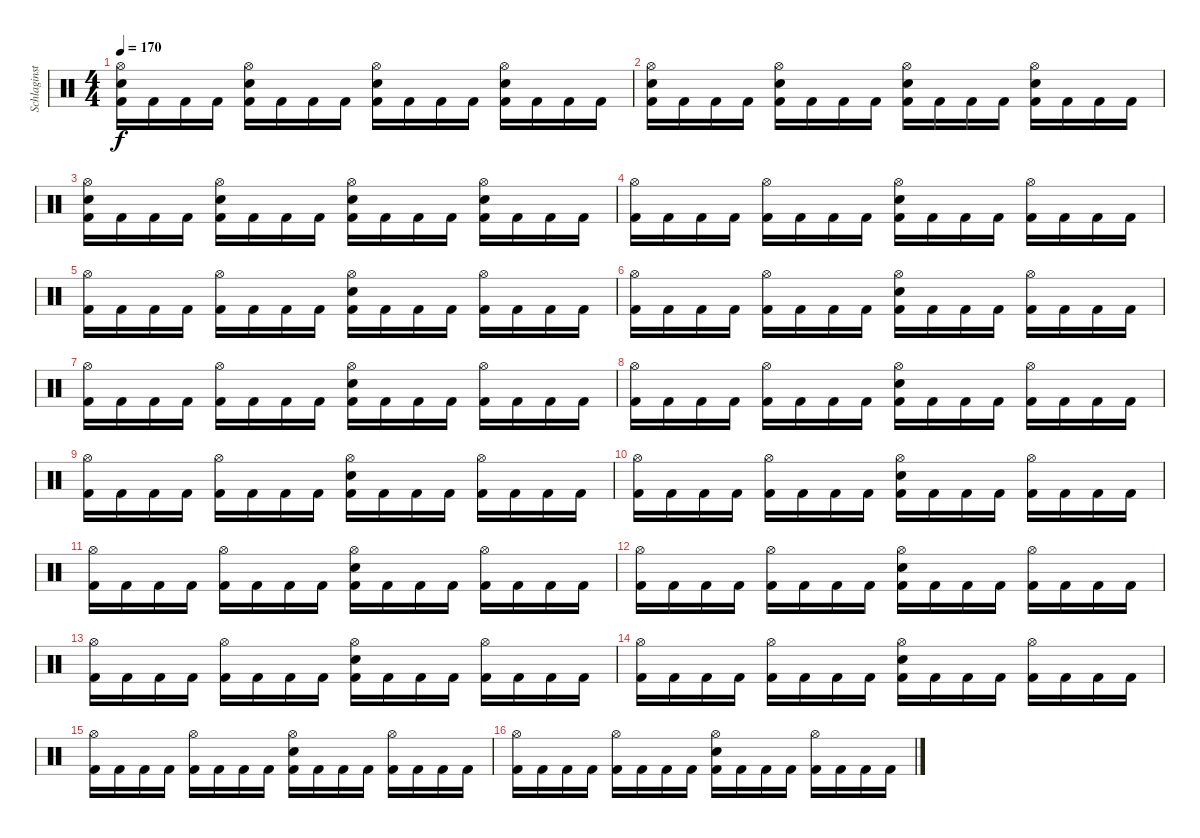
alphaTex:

\track ("Schlaginstrumente - Auswahl" "Schlaginst") {instrument percussion}
\staff {score}
\articulation defaults
\ts (4 4)
\tempo 170
\clef neutral
\ks c
("Hi-Hat (open)" "Snare (hit) 2" "Kick (hit) 2").16{dy f} "Kick (hit) 2".16 "Kick (hit) 2".16 "Kick (hit) 2".16 ("Hi-Hat (open)" "Snare (hit) 2" "Kick (hit) 2").16 "Kick (hit) 2".16 "Kick (hit) 2".16 "Kick (hit) 2".16 ("Hi-Hat (open)" "Snare (hit) 2" "Kick (hit) 2").16 "Kick (hit) 2".16 "Kick (hit) 2".16 "Kick (hit) 2".16 ("Hi-Hat (open)" "Snare (hit) 2" "Kick (hit) 2").16 "Kick (hit) 2".16 "Kick (hit) 2".16 "Kick (hit) 2".16 |
("Hi-Hat (open)" "Snare (hit) 2" "Kick (hit) 2").16 "Kick (hit) 2".16 "Kick (hit) 2".16 "Kick (hit) 2".16 ("Hi-Hat (open)" "Snare (hit) 2" "Kick (hit) 2").16 "Kick (hit) 2".16 "Kick (hit) 2".16 "Kick (hit) 2".16 ("Hi-Hat (open)" "Snare (hit) 2" "Kick (hit) 2").16 "Kick (hit) 2".16 "Kick (hit) 2".16 "Kick (hit) 2".16 ("Hi-Hat (open)" "Snare (hit) 2" "Kick (hit) 2").16 "Kick (hit) 2".16 "Kick (hit) 2".16 "Kick (hit) 2".16 |
("Hi-Hat (open)" "Snare (hit) 2" "Kick (hit) 2").16 "Kick (hit) 2".16 "Kick (hit) 2".16 "Kick (hit) 2".16 ("Hi-Hat (open)" "Snare (hit) 2" "Kick (hit) 2").16 "Kick (hit) 2".16 "Kick (hit) 2".16 "Kick (hit) 2".16 ("Hi-Hat (open)" "Snare (hit) 2" "Kick (hit) 2").16 "Kick (hit) 2".16 "Kick (hit) 2".16 "Kick (hit) 2".16 ("Hi-Hat (open)" "Snare (hit) 2" "Kick (hit) 2").16 "Kick (hit) 2".16 "Kick (hit) 2".16 "Kick (hit) 2".16 |
("Hi-Hat (open)" "Kick (hit) 2").16 "Kick (hit) 2".16 "Kick (hit) 2".16 "Kick (hit) 2".16 ("Hi-Hat (open)" "Kick (hit) 2").16 "Kick (hit) 2".16 "Kick (hit) 2".16 "Kick (hit) 2".16 ("Hi-Hat (open)" "Snare (hit) 2" "Kick (hit) 2").16 "Kick (hit) 2".16 "Kick (hit) 2".16 "Kick (hit) 2".16 ("Hi-Hat (open)" "Kick (hit) 2").16 "Kick (hit) 2".16 "Kick (hit) 2".16 "Kick (hit) 2".16 |
("Hi-Hat (open)" "Kick (hit) 2").16 "Kick (hit) 2".16 "Kick (hit) 2".16 "Kick (hit) 2".16 ("Hi-Hat (open)" "Kick (hit) 2").16 "Kick (hit) 2".16 "Kick (hit) 2".16 "Kick (hit) 2".16 ("Hi-Hat (open)" "Snare (hit) 2" "Kick (hit) 2").16 "Kick (hit) 2".16 "Kick (hit) 2".16 "Kick (hit) 2".16 ("Hi-Hat (open)" "Kick (hit) 2").16 "Kick (hit) 2".16 "Kick (hit) 2".16 "Kick (hit) 2".16 |
("Hi-Hat (open)" "Kick (hit) 2").16 "Kick (hit) 2".16 "Kick (hit) 2".16 "Kick (hit) 2".16 ("Hi-Hat (open)" "Kick (hit) 2").16 "Kick (hit) 2".16 "Kick (hit) 2".16 "Kick (hit) 2".16 ("Hi-Hat (open)" "Snare (hit) 2" "Kick (hit) 2").16 "Kick (hit) 2".16 "Kick (hit) 2".16 "Kick (hit) 2".16 ("Hi-Hat (open)" "Kick (hit) 2").16 "Kick (hit) 2".16 "Kick (hit) 2".16 "Kick (hit) 2".16 |
("Hi-Hat (open)" "Kick (hit) 2").16 "Kick (hit) 2".16 "Kick (hit) 2".16 "Kick (hit) 2".16 ("Hi-Hat (open)" "Kick (hit) 2").16 "Kick (hit) 2".16 "Kick (hit) 2".16 "Kick (hit) 2".16 ("Hi-Hat (open)" "Snare (hit) 2" "Kick (hit) 2").16 "Kick (hit) 2".16 "Kick (hit) 2".16 "Kick (hit) 2".16 ("Hi-Hat (open)" "Kick (hit) 2").16 "Kick (hit) 2".16 "Kick (hit) 2".16 "Kick (hit) 2".16 |
("Hi-Hat (open)" "Kick (hit) 2").16 "Kick (hit) 2".16 "Kick (hit) 2".16 "Kick (hit) 2".16 ("Hi-Hat (open)" "Kick (hit) 2").16 "Kick (hit) 2".16 "Kick (hit) 2".16 "Kick (hit) 2".16 ("Hi-Hat (open)" "Snare (hit) 2" "Kick (hit) 2").16 "Kick (hit) 2".16 "Kick (hit) 2".16 "Kick (hit) 2".16 ("Hi-Hat (open)" "Kick (hit) 2").16 "Kick (hit) 2".16 "Kick (hit) 2".16 "Kick (hit) 2".16 |
("Hi-Hat (open)" "Kick (hit) 2").16 "Kick (hit) 2".16 "Kick (hit) 2".16 "Kick (hit) 2".16 ("Hi-Hat (open)" "Kick (hit) 2").16 "Kick (hit) 2".16 "Kick (hit) 2".16 "Kick (hit) 2".16 ("Hi-Hat (open)" "Snare (hit) 2" "Kick (hit) 2").16 "Kick (hit) 2".16 "Kick (hit) 2".16 "Kick (hit) 2".16 ("Hi-Hat (open)" "Kick (hit) 2").16 "Kick (hit) 2".16 "Kick (hit) 2".16 "Kick (hit) 2".16 |
("Hi-Hat (open)" "Kick (hit) 2").16 "Kick (hit) 2".16 "Kick (hit) 2".16 "Kick (hit) 2".16 ("Hi-Hat (open)" "Kick (hit) 2").16 "Kick (hit) 2".16 "Kick (hit) 2".16 "Kick (hit) 2".16 ("Hi-Hat (open)" "Snare (hit) 2" "Kick (hit) 2").16 "Kick (hit) 2".16 "Kick (hit) 2".16 "Kick (hit) 2".16 ("Hi-Hat (open)" "Kick (hit) 2").16 "Kick (hit) 2".16 "Kick (hit) 2".16 "Kick (hit) 2".16 |
("Hi-Hat (open)" "Kick (hit) 2").16 "Kick (hit) 2".16 "Kick (hit) 2".16 "Kick (hit) 2".16 ("Hi-Hat (open)" "Kick (hit) 2").16 "Kick (hit) 2".16 "Kick (hit) 2".16 "Kick (hit) 2".16 ("Hi-Hat (open)" "Snare (hit) 2" "Kick (hit) 2").16 "Kick (hit) 2".16 "Kick (hit) 2".16 "Kick (hit) 2".16 ("Hi-Hat (open)" "Kick (hit) 2").16 "Kick (hit) 2".16 "Kick (hit) 2".16 "Kick (hit) 2".16 |
("Hi-Hat (open)" "Kick (hit) 2").16 "Kick (hit) 2".16 "Kick (hit) 2".16 "Kick (hit) 2".16 ("Hi-Hat (open)" "Kick (hit) 2").16 "Kick (hit) 2".16 "Kick (hit) 2".16 "Kick (hit) 2".16 ("Hi-Hat (open)" "Snare (hit) 2" "Kick (hit) 2").16 "Kick (hit) 2".16 "Kick (hit) 2".16 "Kick (hit) 2".16 ("Hi-Hat (open)" "Kick (hit) 2").16 "Kick (hit) 2".16 "Kick (hit) 2".16 "Kick (hit) 2".16 |
("Hi-Hat (open)" "Kick (hit) 2").16 "Kick (hit) 2".16 "Kick (hit) 2".16 "Kick (hit) 2".16 ("Hi-Hat (open)" "Kick (hit) 2").16 "Kick (hit) 2".16 "Kick (hit) 2".16 "Kick (hit) 2".16 ("Hi-Hat (open)" "Snare (hit) 2" "Kick (hit) 2").16 "Kick (hit) 2".16 "Kick (hit) 2".16 "Kick (hit) 2".16 ("Hi-Hat (open)" "Kick (hit) 2").16 "Kick (hit) 2".16 "Kick (hit) 2".16 "Kick (hit) 2".16 |
("Hi-Hat (open)" "Kick (hit) 2").16 "Kick (hit) 2".16 "Kick (hit) 2".16 "Kick (hit) 2".16 ("Hi-Hat (open)" "Kick (hit) 2").16 "Kick (hit) 2".16 "Kick (hit) 2".16 "Kick (hit) 2".16 ("Hi-Hat (open)" "Snare (hit) 2" "Kick (hit) 2").16 "Kick (hit) 2".16 "Kick (hit) 2".16 "Kick (hit) 2".16 ("Hi-Hat (open)" "Kick (hit) 2").16 "Kick (hit) 2".16 "Kick (hit) 2".16 "Kick (hit) 2".16 |
("Hi-Hat (open)" "Kick (hit) 2").16 "Kick (hit) 2".16 "Kick (hit) 2".16 "Kick (hit) 2".16 ("Hi-Hat (open)" "Kick (hit) 2").16 "Kick (hit) 2".16 "Kick (hit) 2".16 "Kick (hit) 2".16 ("Hi-Hat (open)" "Snare (hit) 2" "Kick (hit) 2").16 "Kick (hit) 2".16 "Kick (hit) 2".16 "Kick (hit) 2".16 ("Hi-Hat (open)" "Kick (hit) 2").16 "Kick (hit) 2".16 "Kick (hit) 2".16 "Kick (hit) 2".16 |
("Hi-Hat (open)" "Kick (hit) 2").16 "Kick (hit) 2".16 "Kick (hit) 2".16 "Kick (hit) 2".16 ("Hi-Hat (open)" "Kick (hit) 2").16 "Kick (hit) 2".16 "Kick (hit) 2".16 "Kick (hit) 2".16 ("Hi-Hat (open)" "Snare (hit) 2" "Kick (hit) 2").16 "Kick (hit) 2".16 "Kick (hit) 2".16 "Kick (hit) 2".16 ("Hi-Hat (open)" "Kick (hit) 2").16 "Kick (hit) 2".16 "Kick (hit) 2".16 "Kick (hit) 2".16
